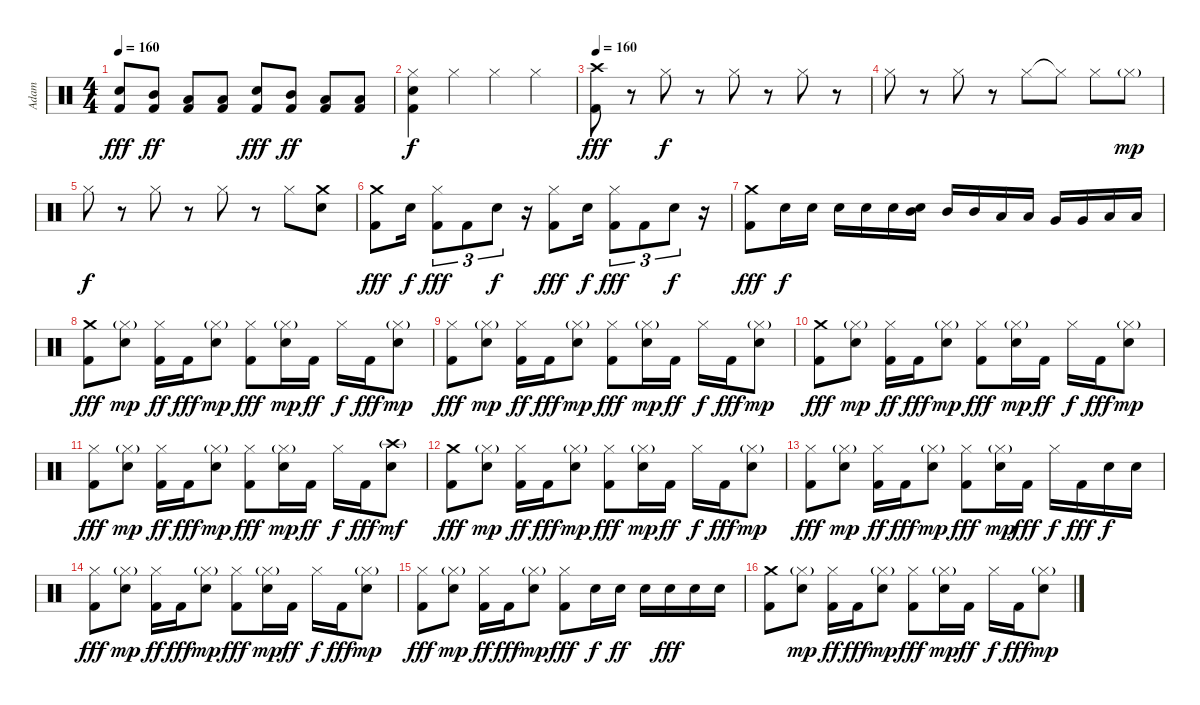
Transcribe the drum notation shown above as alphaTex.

\track ("Adam" "Adam") {instrument percussion}
\staff {score}
\articulation defaults
\ts (4 4)
\tempo 160
\tempo 145
\tempo 160
\clef neutral
\ks c
("Electric Snare (hit)" "Kick (hit) 2").8{dy fff} ("Mid Tom (hit)" "Kick (hit) 2").8{dy ff} ("Low Tom (hit)" "Kick (hit) 2").8 ("Low Floor Tom (hit)" "Kick (hit) 2").8 ("Electric Snare (hit)" "Kick (hit) 2").8{dy fff} ("Mid Tom (hit)" "Kick (hit) 2").8{dy ff} ("Low Tom (hit)" "Kick (hit) 2").8 ("Low Floor Tom (hit)" "Kick (hit) 2").8 |
("Hi-Hat (closed)" "Electric Snare (hit)" "Kick (hit) 2").4{dy f} "Hi-Hat (closed)".4 "Hi-Hat (closed)".4 "Hi-Hat (closed)".4 |
\tempo 160
("Crash high (hit)" "Kick (hit) 2").8{dy fff} r.8 "Hi-Hat (closed)".8{dy f} r.8 "Hi-Hat (closed)".8 r.8 "Hi-Hat (closed)".8 r.8 |
"Hi-Hat (closed)".8 r.8 "Hi-Hat (closed)".8 r.8 "Hi-Hat (closed)".8 "Hi-Hat (closed)"{t}.8 "Hi-Hat (closed)".8 "Hi-Hat (closed)"{g}.8{dy mp} |
"Hi-Hat (closed)".8{dy f} r.8 "Hi-Hat (closed)".8 r.8 "Hi-Hat (closed)".8 r.8 "Hi-Hat (closed)".8 ("Crash medium (hit)" "Electric Snare (hit)").8 |
("Crash medium (hit)" "Kick (hit) 2").8{dy fff} "Electric Snare (hit)".16{dy f} ("Hi-Hat (closed)" "Kick (hit) 2").8{tu (3 2) dy fff} "Kick (hit) 2".8{tu (3 2)} "Electric Snare (hit)".8{tu (3 2) dy f} r.16 ("Hi-Hat (closed)" "Kick (hit) 2").8{dy fff} "Electric Snare (hit)".16{dy f} ("Hi-Hat (closed)" "Kick (hit) 2").8{tu (3 2) dy fff} "Kick (hit) 2".8{tu (3 2)} "Electric Snare (hit)".8{tu (3 2) dy f} r.16 |
("Crash medium (hit)" "Kick (hit) 2").8{dy fff} "Electric Snare (hit)".16{dy f} "Electric Snare (hit)".16 "Electric Snare (hit)".16 "Electric Snare (hit)".16 "Electric Snare (hit)".16 ("Mid Tom (hit)" "Electric Snare (hit)").16 "Mid Tom (hit)".16 "Mid Tom (hit)".16 "Low Tom (hit)".16 "Low Tom (hit)".16 "Very Low Tom (hit)".16 "Very Low Tom (hit)".16 "Low Floor Tom (hit)".16 "Low Floor Tom (hit)".16 |
("Crash medium (hit)" "Kick (hit) 2").8{dy fff} ("Hi-Hat (closed)"{g} "Electric Snare (hit)").8{dy mp} ("Hi-Hat (closed)" "Kick (hit) 2").16{dy ff} "Kick (hit) 2".16{dy fff} ("Hi-Hat (closed)"{g} "Electric Snare (hit)").8{dy mp} ("Hi-Hat (closed)" "Kick (hit) 2").8{dy fff} ("Hi-Hat (closed)"{g} "Electric Snare (hit)").16{dy mp} "Kick (hit) 2".16{dy ff} "Hi-Hat (closed)".16{dy f} "Kick (hit) 2".16{dy fff} ("Hi-Hat (closed)"{g} "Electric Snare (hit)").8{dy mp} |
("Hi-Hat (closed)" "Kick (hit) 2").8{dy fff} ("Hi-Hat (closed)"{g} "Electric Snare (hit)").8{dy mp} ("Hi-Hat (closed)" "Kick (hit) 2").16{dy ff} "Kick (hit) 2".16{dy fff} ("Hi-Hat (closed)"{g} "Electric Snare (hit)").8{dy mp} ("Hi-Hat (closed)" "Kick (hit) 2").8{dy fff} ("Hi-Hat (closed)"{g} "Electric Snare (hit)").16{dy mp} "Kick (hit) 2".16{dy ff} "Hi-Hat (closed)".16{dy f} "Kick (hit) 2".16{dy fff} ("Hi-Hat (closed)"{g} "Electric Snare (hit)").8{dy mp} |
("Crash medium (hit)" "Kick (hit) 2").8{dy fff} ("Hi-Hat (closed)"{g} "Electric Snare (hit)").8{dy mp} ("Hi-Hat (closed)" "Kick (hit) 2").16{dy ff} "Kick (hit) 2".16{dy fff} ("Hi-Hat (closed)"{g} "Electric Snare (hit)").8{dy mp} ("Hi-Hat (closed)" "Kick (hit) 2").8{dy fff} ("Hi-Hat (closed)"{g} "Electric Snare (hit)").16{dy mp} "Kick (hit) 2".16{dy ff} "Hi-Hat (closed)".16{dy f} "Kick (hit) 2".16{dy fff} ("Hi-Hat (closed)"{g} "Electric Snare (hit)").8{dy mp} |
("Hi-Hat (closed)" "Kick (hit) 2").8{dy fff} ("Hi-Hat (closed)"{g} "Electric Snare (hit)").8{dy mp} ("Hi-Hat (closed)" "Kick (hit) 2").16{dy ff} "Kick (hit) 2".16{dy fff} ("Hi-Hat (closed)"{g} "Electric Snare (hit)").8{dy mp} ("Hi-Hat (closed)" "Kick (hit) 2").8{dy fff} ("Hi-Hat (closed)"{g} "Electric Snare (hit)").16{dy mp} "Kick (hit) 2".16{dy ff} "Hi-Hat (closed)".16{dy f} "Kick (hit) 2".16{dy fff} ("Crash high (hit)"{g} "Electric Snare (hit)").8{dy mf} |
("Crash medium (hit)" "Kick (hit) 2").8{dy fff} ("Hi-Hat (closed)"{g} "Electric Snare (hit)").8{dy mp} ("Hi-Hat (closed)" "Kick (hit) 2").16{dy ff} "Kick (hit) 2".16{dy fff} ("Hi-Hat (closed)"{g} "Electric Snare (hit)").8{dy mp} ("Hi-Hat (closed)" "Kick (hit) 2").8{dy fff} ("Hi-Hat (closed)"{g} "Electric Snare (hit)").16{dy mp} "Kick (hit) 2".16{dy ff} "Hi-Hat (closed)".16{dy f} "Kick (hit) 2".16{dy fff} ("Hi-Hat (closed)"{g} "Electric Snare (hit)").8{dy mp} |
("Hi-Hat (closed)" "Kick (hit) 2").8{dy fff} ("Hi-Hat (closed)"{g} "Electric Snare (hit)").8{dy mp} ("Hi-Hat (closed)" "Kick (hit) 2").16{dy ff} "Kick (hit) 2".16{dy fff} ("Hi-Hat (closed)"{g} "Electric Snare (hit)").8{dy mp} ("Hi-Hat (closed)" "Kick (hit) 2").8{dy fff} ("Hi-Hat (closed)"{g} "Electric Snare (hit)").16{dy mp} "Kick (hit) 2".16{dy fff} "Hi-Hat (closed)".16{dy f} "Kick (hit) 2".16{dy fff} "Electric Snare (hit)".16{dy f} "Electric Snare (hit)".16 |
("Hi-Hat (closed)" "Kick (hit) 2").8{dy fff} ("Hi-Hat (closed)"{g} "Electric Snare (hit)").8{dy mp} ("Hi-Hat (closed)" "Kick (hit) 2").16{dy ff} "Kick (hit) 2".16{dy fff} ("Hi-Hat (closed)"{g} "Electric Snare (hit)").8{dy mp} ("Hi-Hat (closed)" "Kick (hit) 2").8{dy fff} ("Hi-Hat (closed)"{g} "Electric Snare (hit)").16{dy mp} "Kick (hit) 2".16{dy ff} "Hi-Hat (closed)".16{dy f} "Kick (hit) 2".16{dy fff} ("Hi-Hat (closed)"{g} "Electric Snare (hit)").8{dy mp} |
("Hi-Hat (closed)" "Kick (hit) 2").8{dy fff} ("Hi-Hat (closed)"{g} "Electric Snare (hit)").8{dy mp} ("Hi-Hat (closed)" "Kick (hit) 2").16{dy ff} "Kick (hit) 2".16{dy fff} ("Hi-Hat (closed)"{g} "Electric Snare (hit)").8{dy mp} ("Hi-Hat (closed)" "Kick (hit) 2").8{dy fff} "Electric Snare (hit)".16{dy f} "Electric Snare (hit)".16{dy ff} "Electric Snare (hit)".16 "Electric Snare (hit)".16{dy fff} "Electric Snare (hit)".16 "Electric Snare (hit)".16 |
("Crash medium (hit)" "Kick (hit) 2").8 ("Hi-Hat (closed)"{g} "Electric Snare (hit)").8{dy mp} ("Hi-Hat (closed)" "Kick (hit) 2").16{dy ff} "Kick (hit) 2".16{dy fff} ("Hi-Hat (closed)"{g} "Electric Snare (hit)").8{dy mp} ("Hi-Hat (closed)" "Kick (hit) 2").8{dy fff} ("Hi-Hat (closed)"{g} "Electric Snare (hit)").16{dy mp} "Kick (hit) 2".16{dy ff} "Hi-Hat (closed)".16{dy f} "Kick (hit) 2".16{dy fff} ("Hi-Hat (closed)"{g} "Electric Snare (hit)").8{dy mp}
